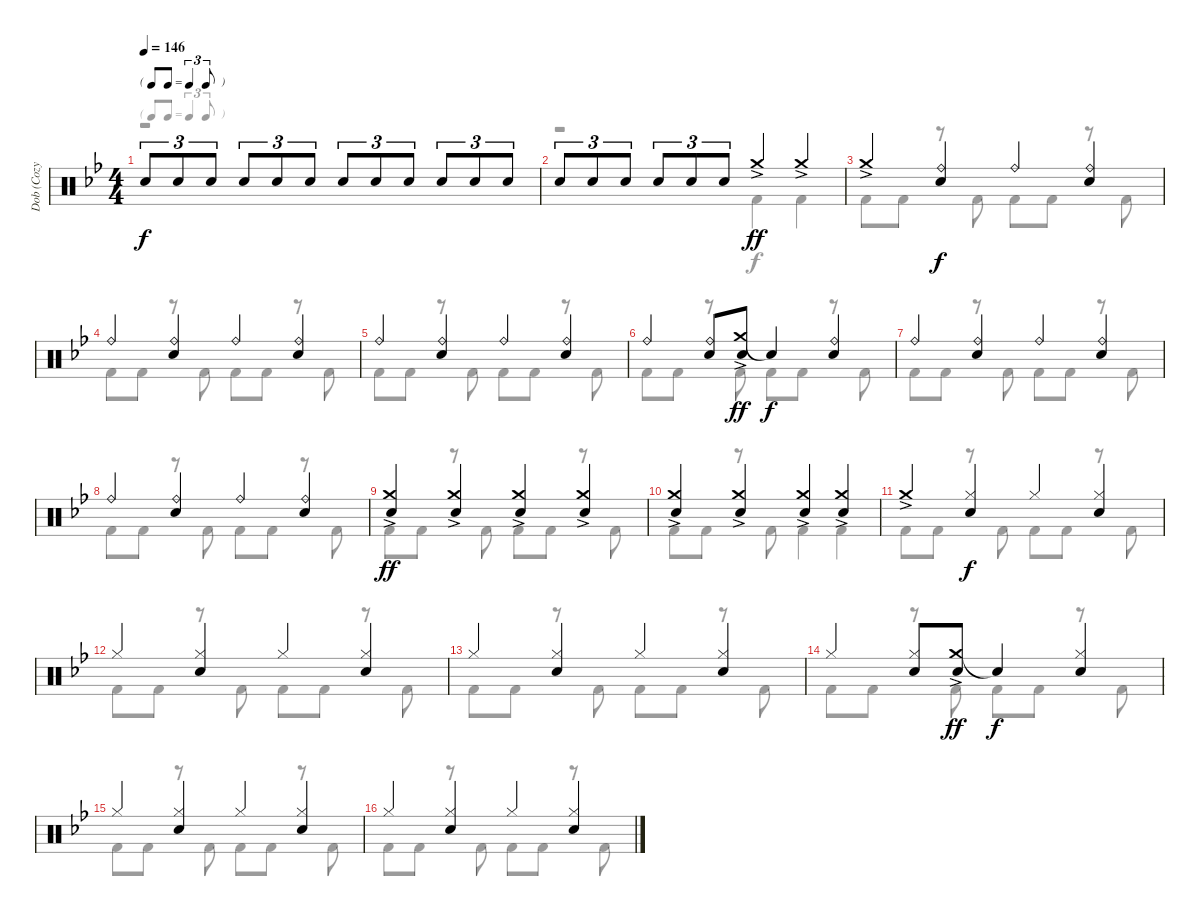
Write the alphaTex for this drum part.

\track ("Dob (Cozy Powell)" "Dob (Cozy ") {instrument percussion}
\staff {score}
\articulation defaults
\voice
\ts (4 4)
\tf triplet8th
\tempo 146
\clef neutral
\ks bb "Electric Snare (hit)".8{tu (3 2) dy f} "Electric Snare (hit)".8{tu (3 2)} "Electric Snare (hit)".8{tu (3 2)} "Electric Snare (hit)".8{tu (3 2)} "Electric Snare (hit)".8{tu (3 2)} "Electric Snare (hit)".8{tu (3 2)} "Electric Snare (hit)".8{tu (3 2)} "Electric Snare (hit)".8{tu (3 2)} "Electric Snare (hit)".8{tu (3 2)} "Electric Snare (hit)".8{tu (3 2)} "Electric Snare (hit)".8{tu (3 2)} "Electric Snare (hit)".8{tu (3 2)}
|
"Electric Snare (hit)".8{tu (3 2)} "Electric Snare (hit)".8{tu (3 2)} "Electric Snare (hit)".8{tu (3 2)} "Electric Snare (hit)".8{tu (3 2)} "Electric Snare (hit)".8{tu (3 2)} "Electric Snare (hit)".8{tu (3 2)} "Crash medium (hit)"{ac}.4{dy ff} "Crash medium (hit)"{ac}.4 |
"Crash medium (hit)"{ac}.4 ("Ride (bell)" "Electric Snare (hit)").4{dy f} "Ride (bell)".4 ("Ride (bell)" "Electric Snare (hit)").4 |
"Ride (bell)".4 ("Ride (bell)" "Electric Snare (hit)").4 "Ride (bell)".4 ("Ride (bell)" "Electric Snare (hit)").4 |
"Ride (bell)".4 ("Ride (bell)" "Electric Snare (hit)").4 "Ride (bell)".4 ("Ride (bell)" "Electric Snare (hit)").4 |
"Ride (bell)".4 ("Ride (bell)" "Electric Snare (hit)").8 ("Crash medium (hit)"{ac} "Electric Snare (hit)").8{dy ff} "Snare (hit)"{t}.4{dy f} ("Ride (bell)" "Electric Snare (hit)").4 |
"Ride (bell)".4 ("Ride (bell)" "Electric Snare (hit)").4 "Ride (bell)".4 ("Ride (bell)" "Electric Snare (hit)").4 |
"Ride (bell)".4 ("Ride (bell)" "Electric Snare (hit)").4 "Ride (bell)".4 ("Ride (bell)" "Electric Snare (hit)").4 |
("Crash medium (hit)"{ac} "Electric Snare (hit)").4{dy ff} ("Crash medium (hit)"{ac} "Electric Snare (hit)").4 ("Crash medium (hit)"{ac} "Electric Snare (hit)").4 ("Crash medium (hit)"{ac} "Electric Snare (hit)").4 |
("Crash medium (hit)"{ac} "Electric Snare (hit)").4 ("Crash medium (hit)"{ac} "Electric Snare (hit)").4 ("Crash medium (hit)"{ac} "Electric Snare (hit)").4 ("Crash medium (hit)"{ac} "Electric Snare (hit)").4 |
"Crash medium (hit)"{ac}.4 ("Hi-Hat (closed)" "Electric Snare (hit)").4{dy f} "Hi-Hat (closed)".4 ("Hi-Hat (closed)" "Electric Snare (hit)").4 |
"Hi-Hat (closed)".4 ("Hi-Hat (closed)" "Electric Snare (hit)").4 "Hi-Hat (closed)".4 ("Hi-Hat (closed)" "Electric Snare (hit)").4 |
"Hi-Hat (closed)".4 ("Hi-Hat (closed)" "Electric Snare (hit)").4 "Hi-Hat (closed)".4 ("Hi-Hat (closed)" "Electric Snare (hit)").4 |
"Hi-Hat (closed)".4 ("Hi-Hat (closed)" "Electric Snare (hit)").8 ("Crash medium (hit)"{ac} "Electric Snare (hit)").8{dy ff} "Snare (hit)"{t}.4{dy f} ("Hi-Hat (closed)" "Electric Snare (hit)").4 |
"Hi-Hat (closed)".4 ("Hi-Hat (closed)" "Electric Snare (hit)").4 "Hi-Hat (closed)".4 ("Hi-Hat (closed)" "Electric Snare (hit)").4 |
"Hi-Hat (closed)".4 ("Hi-Hat (closed)" "Electric Snare (hit)").4 "Hi-Hat (closed)".4 ("Hi-Hat (closed)" "Electric Snare (hit)").4
\voice
\clef neutral
\ottava regular
\simile none
\ks bb
r.1{dy f} |
r.2 "Kick (hit) 2".4 "Kick (hit) 2".4 |
"Kick (hit) 2".8 "Kick (hit) 2".8 r.8 "Kick (hit) 2".8 "Kick (hit) 2".8 "Kick (hit) 2".8 r.8 "Kick (hit) 2".8 |
"Kick (hit) 2".8 "Kick (hit) 2".8 r.8 "Kick (hit) 2".8 "Kick (hit) 2".8 "Kick (hit) 2".8 r.8 "Kick (hit) 2".8 |
"Kick (hit) 2".8 "Kick (hit) 2".8 r.8 "Kick (hit) 2".8 "Kick (hit) 2".8 "Kick (hit) 2".8 r.8 "Kick (hit) 2".8 |
"Kick (hit) 2".8 "Kick (hit) 2".8 r.8 "Kick (hit) 2".8 "Kick (hit) 2".8 "Kick (hit) 2".8 r.8 "Kick (hit) 2".8 |
"Kick (hit) 2".8 "Kick (hit) 2".8 r.8 "Kick (hit) 2".8 "Kick (hit) 2".8 "Kick (hit) 2".8 r.8 "Kick (hit) 2".8 |
"Kick (hit) 2".8 "Kick (hit) 2".8 r.8 "Kick (hit) 2".8 "Kick (hit) 2".8 "Kick (hit) 2".8 r.8 "Kick (hit) 2".8 |
"Kick (hit) 2".8 "Kick (hit) 2".8 r.8 "Kick (hit) 2".8 "Kick (hit) 2".8 "Kick (hit) 2".8 r.8 "Kick (hit) 2".8 |
"Kick (hit) 2".8 "Kick (hit) 2".8 r.8 "Kick (hit) 2".8 "Kick (hit) 2".4 "Kick (hit) 2".4 |
"Kick (hit) 2".8 "Kick (hit) 2".8 r.8 "Kick (hit) 2".8 "Kick (hit) 2".8 "Kick (hit) 2".8 r.8 "Kick (hit) 2".8 |
"Kick (hit) 2".8 "Kick (hit) 2".8 r.8 "Kick (hit) 2".8 "Kick (hit) 2".8 "Kick (hit) 2".8 r.8 "Kick (hit) 2".8 |
"Kick (hit) 2".8 "Kick (hit) 2".8 r.8 "Kick (hit) 2".8 "Kick (hit) 2".8 "Kick (hit) 2".8 r.8 "Kick (hit) 2".8 |
"Kick (hit) 2".8 "Kick (hit) 2".8 r.8 "Kick (hit) 2".8 "Kick (hit) 2".8 "Kick (hit) 2".8 r.8 "Kick (hit) 2".8 |
"Kick (hit) 2".8 "Kick (hit) 2".8 r.8 "Kick (hit) 2".8 "Kick (hit) 2".8 "Kick (hit) 2".8 r.8 "Kick (hit) 2".8 |
"Kick (hit) 2".8 "Kick (hit) 2".8 r.8 "Kick (hit) 2".8 "Kick (hit) 2".8 "Kick (hit) 2".8 r.8 "Kick (hit) 2".8
